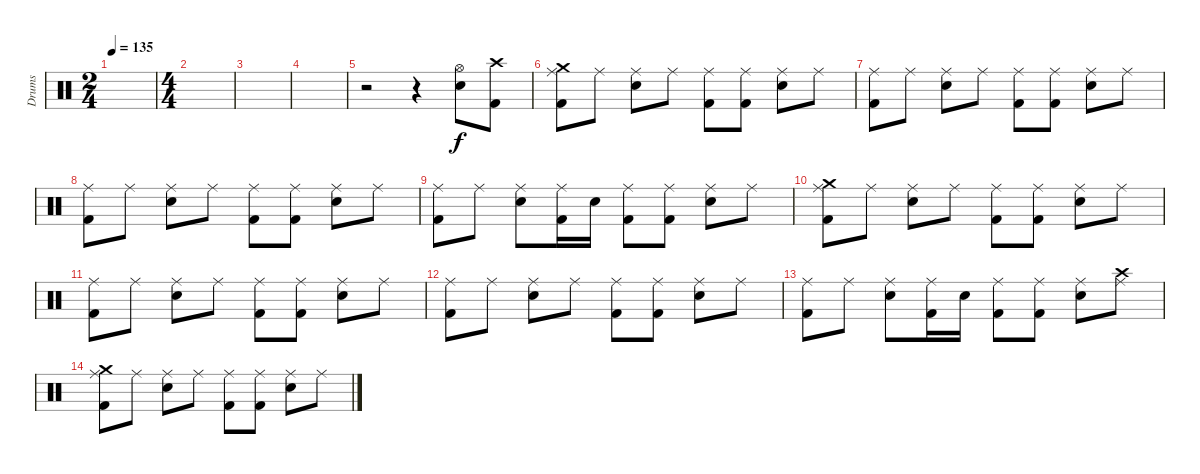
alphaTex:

\track ("Drums" "Drums") {instrument percussion}
\staff {score}
\articulation defaults
\ts (2 4)
\tempo 135
\clef neutral
\ks c
|
\ts (4 4)
|
|
|
r.2 r.4 ("Hi-Hat (open)" "Snare (hit) 2").8 ("Crash high (hit)" "Kick (hit) 2").8 |
("Crash medium (hit)" "Ride (middle)" "Kick (hit) 2").8 "Ride (middle)".8 ("Ride (middle)" "Snare (hit) 2").8 "Ride (middle)".8 ("Ride (middle)" "Kick (hit) 2").8 ("Ride (middle)" "Kick (hit) 2").8 ("Ride (middle)" "Snare (hit) 2").8 "Ride (middle)".8 |
("Ride (middle)" "Kick (hit) 2").8 "Ride (middle)".8 ("Ride (middle)" "Snare (hit) 2").8 "Ride (middle)".8 ("Ride (middle)" "Kick (hit) 2").8 ("Ride (middle)" "Kick (hit) 2").8 ("Ride (middle)" "Snare (hit) 2").8 "Ride (middle)".8 |
("Ride (middle)" "Kick (hit) 2").8 "Ride (middle)".8 ("Ride (middle)" "Snare (hit) 2").8 "Ride (middle)".8 ("Ride (middle)" "Kick (hit) 2").8 ("Ride (middle)" "Kick (hit) 2").8 ("Ride (middle)" "Snare (hit) 2").8 "Ride (middle)".8 |
("Ride (middle)" "Kick (hit) 2").8 "Ride (middle)".8 ("Ride (middle)" "Snare (hit) 2").8 ("Ride (middle)" "Kick (hit) 2").16 "Snare (hit) 2".16 ("Ride (middle)" "Kick (hit) 2").8 ("Ride (middle)" "Kick (hit) 2").8 ("Ride (middle)" "Snare (hit) 2").8 "Ride (middle)".8 |
("Crash medium (hit)" "Ride (middle)" "Kick (hit) 2").8 "Ride (middle)".8 ("Ride (middle)" "Snare (hit) 2").8 "Ride (middle)".8 ("Ride (middle)" "Kick (hit) 2").8 ("Ride (middle)" "Kick (hit) 2").8 ("Ride (middle)" "Snare (hit) 2").8 "Ride (middle)".8 |
("Ride (middle)" "Kick (hit) 2").8 "Ride (middle)".8 ("Ride (middle)" "Snare (hit) 2").8 "Ride (middle)".8 ("Ride (middle)" "Kick (hit) 2").8 ("Ride (middle)" "Kick (hit) 2").8 ("Ride (middle)" "Snare (hit) 2").8 "Ride (middle)".8 |
("Ride (middle)" "Kick (hit) 2").8 "Ride (middle)".8 ("Ride (middle)" "Snare (hit) 2").8 "Ride (middle)".8 ("Ride (middle)" "Kick (hit) 2").8 ("Ride (middle)" "Kick (hit) 2").8 ("Ride (middle)" "Snare (hit) 2").8 "Ride (middle)".8 |
("Ride (middle)" "Kick (hit) 2").8 "Ride (middle)".8 ("Ride (middle)" "Snare (hit) 2").8 ("Ride (middle)" "Kick (hit) 2").16 "Snare (hit) 2".16 ("Ride (middle)" "Kick (hit) 2").8 ("Ride (middle)" "Kick (hit) 2").8 ("Ride (middle)" "Snare (hit) 2").8 ("Crash high (hit)" "Ride (middle)").8 |
("Crash medium (hit)" "Ride (middle)" "Kick (hit) 2").8 "Ride (middle)".8 ("Ride (middle)" "Snare (hit) 2").8 "Ride (middle)".8 ("Ride (middle)" "Kick (hit) 2").8 ("Ride (middle)" "Kick (hit) 2").8 ("Ride (middle)" "Snare (hit) 2").8 "Ride (middle)".8
